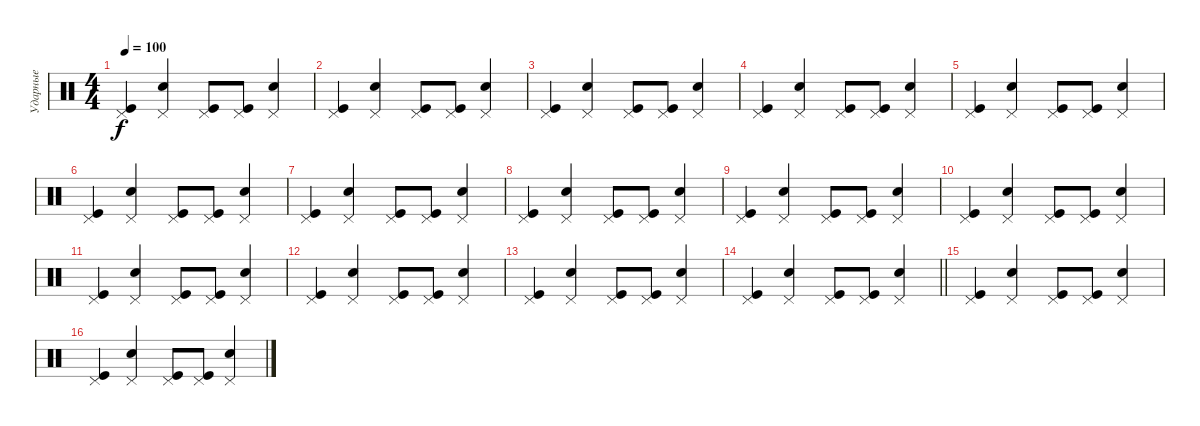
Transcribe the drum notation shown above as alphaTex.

\track ("Ударные" "Ударные") {instrument percussion}
\staff {score}
\articulation defaults
\ts (4 4)
\tempo 100
\clef neutral
\ks c
("Pedal Hi-Hat (hit)" "Kick (hit)").4{dy f} ("Pedal Hi-Hat (hit)" "Snare (hit) 2").4 ("Pedal Hi-Hat (hit)" "Kick (hit)").8 ("Pedal Hi-Hat (hit)" "Kick (hit)").8 ("Pedal Hi-Hat (hit)" "Snare (hit) 2").4 |
("Pedal Hi-Hat (hit)" "Kick (hit)").4 ("Pedal Hi-Hat (hit)" "Snare (hit) 2").4 ("Pedal Hi-Hat (hit)" "Kick (hit)").8 ("Pedal Hi-Hat (hit)" "Kick (hit)").8 ("Pedal Hi-Hat (hit)" "Snare (hit) 2").4 |
("Pedal Hi-Hat (hit)" "Kick (hit)").4 ("Pedal Hi-Hat (hit)" "Snare (hit) 2").4 ("Pedal Hi-Hat (hit)" "Kick (hit)").8 ("Pedal Hi-Hat (hit)" "Kick (hit)").8 ("Pedal Hi-Hat (hit)" "Snare (hit) 2").4 |
("Pedal Hi-Hat (hit)" "Kick (hit)").4 ("Pedal Hi-Hat (hit)" "Snare (hit) 2").4 ("Pedal Hi-Hat (hit)" "Kick (hit)").8 ("Pedal Hi-Hat (hit)" "Kick (hit)").8 ("Pedal Hi-Hat (hit)" "Snare (hit) 2").4 |
("Pedal Hi-Hat (hit)" "Kick (hit)").4 ("Pedal Hi-Hat (hit)" "Snare (hit) 2").4 ("Pedal Hi-Hat (hit)" "Kick (hit)").8 ("Pedal Hi-Hat (hit)" "Kick (hit)").8 ("Pedal Hi-Hat (hit)" "Snare (hit) 2").4 |
("Pedal Hi-Hat (hit)" "Kick (hit)").4 ("Pedal Hi-Hat (hit)" "Snare (hit) 2").4 ("Pedal Hi-Hat (hit)" "Kick (hit)").8 ("Pedal Hi-Hat (hit)" "Kick (hit)").8 ("Pedal Hi-Hat (hit)" "Snare (hit) 2").4 |
("Pedal Hi-Hat (hit)" "Kick (hit)").4 ("Pedal Hi-Hat (hit)" "Snare (hit) 2").4 ("Pedal Hi-Hat (hit)" "Kick (hit)").8 ("Pedal Hi-Hat (hit)" "Kick (hit)").8 ("Pedal Hi-Hat (hit)" "Snare (hit) 2").4 |
("Pedal Hi-Hat (hit)" "Kick (hit)").4 ("Pedal Hi-Hat (hit)" "Snare (hit) 2").4 ("Pedal Hi-Hat (hit)" "Kick (hit)").8 ("Pedal Hi-Hat (hit)" "Kick (hit)").8 ("Pedal Hi-Hat (hit)" "Snare (hit) 2").4 |
("Pedal Hi-Hat (hit)" "Kick (hit)").4 ("Pedal Hi-Hat (hit)" "Snare (hit) 2").4 ("Pedal Hi-Hat (hit)" "Kick (hit)").8 ("Pedal Hi-Hat (hit)" "Kick (hit)").8 ("Pedal Hi-Hat (hit)" "Snare (hit) 2").4 |
("Pedal Hi-Hat (hit)" "Kick (hit)").4 ("Pedal Hi-Hat (hit)" "Snare (hit) 2").4 ("Pedal Hi-Hat (hit)" "Kick (hit)").8 ("Pedal Hi-Hat (hit)" "Kick (hit)").8 ("Pedal Hi-Hat (hit)" "Snare (hit) 2").4 |
("Pedal Hi-Hat (hit)" "Kick (hit)").4 ("Pedal Hi-Hat (hit)" "Snare (hit) 2").4 ("Pedal Hi-Hat (hit)" "Kick (hit)").8 ("Pedal Hi-Hat (hit)" "Kick (hit)").8 ("Pedal Hi-Hat (hit)" "Snare (hit) 2").4 |
("Pedal Hi-Hat (hit)" "Kick (hit)").4 ("Pedal Hi-Hat (hit)" "Snare (hit) 2").4 ("Pedal Hi-Hat (hit)" "Kick (hit)").8 ("Pedal Hi-Hat (hit)" "Kick (hit)").8 ("Pedal Hi-Hat (hit)" "Snare (hit) 2").4 |
("Pedal Hi-Hat (hit)" "Kick (hit)").4 ("Pedal Hi-Hat (hit)" "Snare (hit) 2").4 ("Pedal Hi-Hat (hit)" "Kick (hit)").8 ("Pedal Hi-Hat (hit)" "Kick (hit)").8 ("Pedal Hi-Hat (hit)" "Snare (hit) 2").4 |
\barLineRight lightlight
("Pedal Hi-Hat (hit)" "Kick (hit)").4 ("Pedal Hi-Hat (hit)" "Snare (hit) 2").4 ("Pedal Hi-Hat (hit)" "Kick (hit)").8 ("Pedal Hi-Hat (hit)" "Kick (hit)").8 ("Pedal Hi-Hat (hit)" "Snare (hit) 2").4 |
("Pedal Hi-Hat (hit)" "Kick (hit)").4 ("Pedal Hi-Hat (hit)" "Snare (hit) 2").4 ("Pedal Hi-Hat (hit)" "Kick (hit)").8 ("Pedal Hi-Hat (hit)" "Kick (hit)").8 ("Pedal Hi-Hat (hit)" "Snare (hit) 2").4 |
("Pedal Hi-Hat (hit)" "Kick (hit)").4 ("Pedal Hi-Hat (hit)" "Snare (hit) 2").4 ("Pedal Hi-Hat (hit)" "Kick (hit)").8 ("Pedal Hi-Hat (hit)" "Kick (hit)").8 ("Pedal Hi-Hat (hit)" "Snare (hit) 2").4
